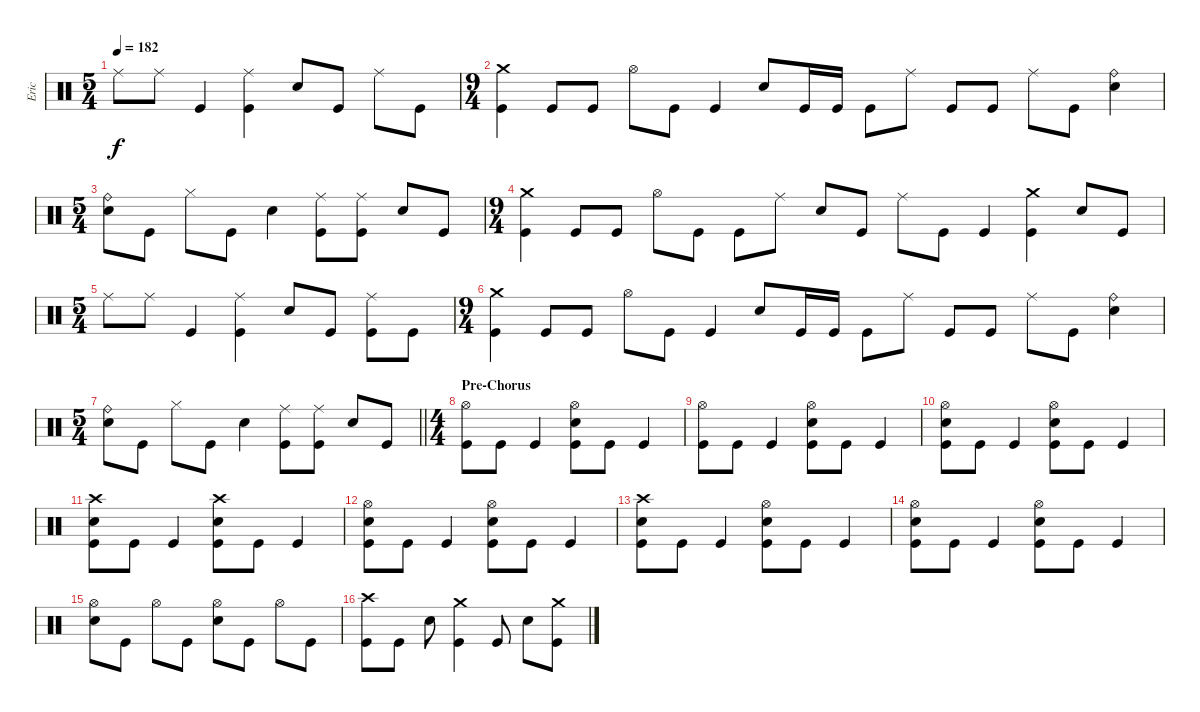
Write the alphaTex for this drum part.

\track ("Eric" "Eric") {instrument percussion}
\staff {score}
\articulation defaults
\ts (5 4)
\tempo 182
\clef neutral
\ks c "Ride (middle)".8{dy f} "Ride (middle)".8 "Kick (hit)".4
("Ride (middle)" "Kick (hit)").4 "Snare (hit) 2".8 "Kick (hit)".8 "Ride (middle)".8 "Kick (hit)".8 |
\ts (9 4)
("Crash medium (hit)" "Kick (hit)").4 "Kick (hit)".8 "Kick (hit)".8 "Hi-Hat (open)".8 "Kick (hit)".8 "Kick (hit)".4 "Snare (hit) 2".8 "Kick (hit)".16 "Kick (hit)".16 "Kick (hit)".8 "Ride (middle)".8 "Kick (hit)".8 "Kick (hit)".8 "Ride (middle)".8 "Kick (hit)".8 ("Ride (bell)" "Snare (hit) 2").4 |
\ts (5 4)
("Ride (bell)" "Snare (hit) 2").8 "Kick (hit)".8 "Hi-Hat (closed)".8 "Kick (hit)".8 "Snare (hit) 2".4 ("Ride (middle)" "Kick (hit)").8 ("Ride (middle)" "Kick (hit)").8 "Snare (hit) 2".8 "Kick (hit)".8 |
\ts (9 4)
("Crash medium (hit)" "Kick (hit)").4 "Kick (hit)".8 "Kick (hit)".8 "Hi-Hat (open)".8 "Kick (hit)".8 "Kick (hit)".8 "Ride (middle)".8 "Snare (hit) 2".8 "Kick (hit)".8 "Ride (middle)".8 "Kick (hit)".8 "Kick (hit)".4 ("Crash medium (hit)" "Kick (hit)").4 "Snare (hit) 2".8 "Kick (hit)".8 |
\ts (5 4)
"Ride (middle)".8 "Ride (middle)".8 "Kick (hit)".4 ("Ride (middle)" "Kick (hit)").4 "Snare (hit) 2".8 "Kick (hit)".8 ("Ride (middle)" "Kick (hit)").8 "Kick (hit)".8 |
\ts (9 4)
("Crash medium (hit)" "Kick (hit)").4 "Kick (hit)".8 "Kick (hit)".8 "Hi-Hat (open)".8 "Kick (hit)".8 "Kick (hit)".4 "Snare (hit) 2".8 "Kick (hit)".16 "Kick (hit)".16 "Kick (hit)".8 "Ride (middle)".8 "Kick (hit)".8 "Kick (hit)".8 "Ride (middle)".8 "Kick (hit)".8 ("Ride (bell)" "Snare (hit) 2").4 |
\ts (5 4)
\barLineRight lightlight
("Ride (bell)" "Snare (hit) 2").8 "Kick (hit)".8 "Hi-Hat (closed)".8 "Kick (hit)".8 "Snare (hit) 2".4 ("Ride (middle)" "Kick (hit)").8 ("Ride (middle)" "Kick (hit)").8 "Snare (hit) 2".8 "Kick (hit)".8 |
\ts (4 4)
\section ("" "Pre-Chorus")
("Hi-Hat (open)" "Kick (hit)").8 "Kick (hit)".8 "Kick (hit)".4 ("Hi-Hat (open)" "Snare (hit) 2" "Kick (hit)").8 "Kick (hit)".8 "Kick (hit)".4 |
("Hi-Hat (open)" "Kick (hit)").8 "Kick (hit)".8 "Kick (hit)".4 ("Hi-Hat (open)" "Snare (hit) 2" "Kick (hit)").8 "Kick (hit)".8 "Kick (hit)".4 |
("Hi-Hat (open)" "Snare (hit) 2" "Kick (hit)").8 "Kick (hit)".8 "Kick (hit)".4 ("Hi-Hat (open)" "Snare (hit) 2" "Kick (hit)").8 "Kick (hit)".8 "Kick (hit)".4 |
("Crash high (hit)" "Snare (hit) 2" "Kick (hit)").8 "Kick (hit)".8 "Kick (hit)".4 ("Crash high (hit)" "Snare (hit) 2" "Kick (hit)").8 "Kick (hit)".8 "Kick (hit)".4 |
("Hi-Hat (open)" "Snare (hit) 2" "Kick (hit)").8 "Kick (hit)".8 "Kick (hit)".4 ("Hi-Hat (open)" "Snare (hit) 2" "Kick (hit)").8 "Kick (hit)".8 "Kick (hit)".4 |
("Crash high (hit)" "Snare (hit) 2" "Kick (hit)").8 "Kick (hit)".8 "Kick (hit)".4 ("Hi-Hat (open)" "Snare (hit) 2" "Kick (hit)").8 "Kick (hit)".8 "Kick (hit)".4 |
("Hi-Hat (open)" "Snare (hit) 2" "Kick (hit)").8 "Kick (hit)".8 "Kick (hit)".4 ("Hi-Hat (open)" "Snare (hit) 2" "Kick (hit)").8 "Kick (hit)".8 "Kick (hit)".4 |
("Hi-Hat (open)" "Snare (hit) 2").8 "Kick (hit)".8 "Hi-Hat (open)".8 "Kick (hit)".8 ("Hi-Hat (open)" "Snare (hit) 2").8 "Kick (hit)".8 "Hi-Hat (open)".8 "Kick (hit)".8 |
("Crash high (hit)" "Kick (hit)").8 "Kick (hit)".8 "Snare (hit) 2".8 ("Crash medium (hit)" "Kick (hit)").4 "Kick (hit)".8 "Snare (hit) 2".8 ("Crash medium (hit)" "Kick (hit)").8
